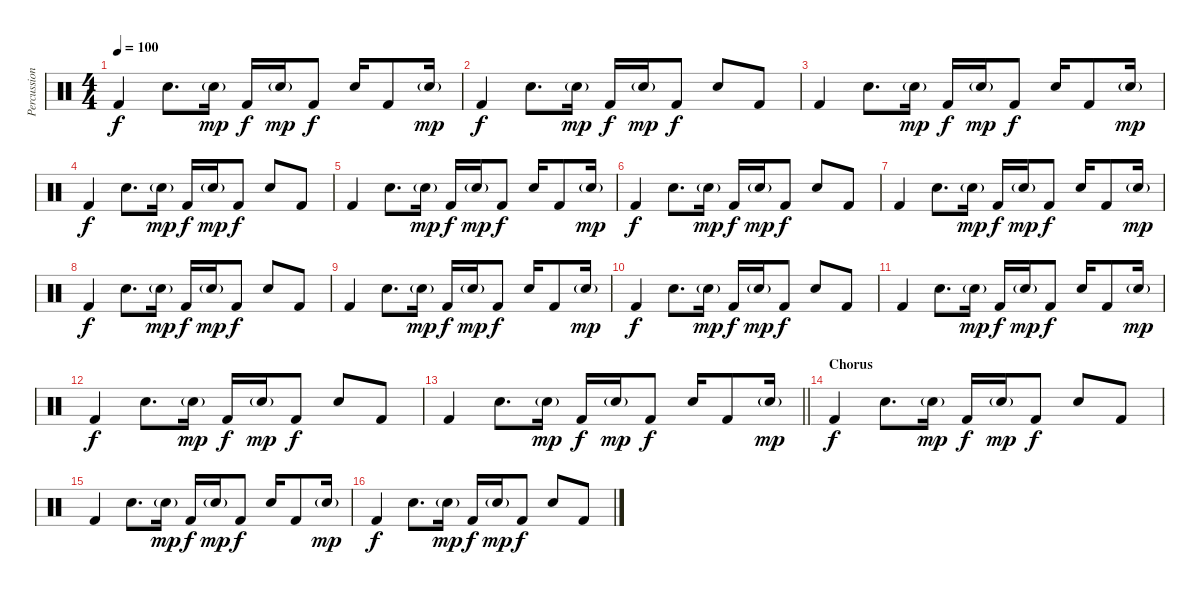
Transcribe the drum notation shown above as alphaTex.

\track ("Percussion" "Percussion") {instrument percussion}
\staff {score}
\articulation defaults
\ts (4 4)
\tempo 100
\clef neutral
\ks c "Kick (hit) 2".4{dy f} "Snare (hit) 2".8{d} "Snare (hit) 2"{g}.16{dy mp} "Kick (hit) 2".16{dy f} "Snare (hit) 2"{g}.16{dy mp} "Kick (hit) 2".8{dy f} "Snare (hit) 2".16 "Kick (hit) 2".8 "Snare (hit) 2"{g}.16{dy mp}
|
"Kick (hit) 2".4{dy f} "Snare (hit) 2".8{d} "Snare (hit) 2"{g}.16{dy mp} "Kick (hit) 2".16{dy f} "Snare (hit) 2"{g}.16{dy mp} "Kick (hit) 2".8{dy f} "Snare (hit) 2".8 "Kick (hit) 2".8 |
"Kick (hit) 2".4 "Snare (hit) 2".8{d} "Snare (hit) 2"{g}.16{dy mp} "Kick (hit) 2".16{dy f} "Snare (hit) 2"{g}.16{dy mp} "Kick (hit) 2".8{dy f} "Snare (hit) 2".16 "Kick (hit) 2".8 "Snare (hit) 2"{g}.16{dy mp} |
"Kick (hit) 2".4{dy f} "Snare (hit) 2".8{d} "Snare (hit) 2"{g}.16{dy mp} "Kick (hit) 2".16{dy f} "Snare (hit) 2"{g}.16{dy mp} "Kick (hit) 2".8{dy f} "Snare (hit) 2".8 "Kick (hit) 2".8 |
"Kick (hit) 2".4 "Snare (hit) 2".8{d} "Snare (hit) 2"{g}.16{dy mp} "Kick (hit) 2".16{dy f} "Snare (hit) 2"{g}.16{dy mp} "Kick (hit) 2".8{dy f} "Snare (hit) 2".16 "Kick (hit) 2".8 "Snare (hit) 2"{g}.16{dy mp} |
"Kick (hit) 2".4{dy f} "Snare (hit) 2".8{d} "Snare (hit) 2"{g}.16{dy mp} "Kick (hit) 2".16{dy f} "Snare (hit) 2"{g}.16{dy mp} "Kick (hit) 2".8{dy f} "Snare (hit) 2".8 "Kick (hit) 2".8 |
"Kick (hit) 2".4 "Snare (hit) 2".8{d} "Snare (hit) 2"{g}.16{dy mp} "Kick (hit) 2".16{dy f} "Snare (hit) 2"{g}.16{dy mp} "Kick (hit) 2".8{dy f} "Snare (hit) 2".16 "Kick (hit) 2".8 "Snare (hit) 2"{g}.16{dy mp} |
"Kick (hit) 2".4{dy f} "Snare (hit) 2".8{d} "Snare (hit) 2"{g}.16{dy mp} "Kick (hit) 2".16{dy f} "Snare (hit) 2"{g}.16{dy mp} "Kick (hit) 2".8{dy f} "Snare (hit) 2".8 "Kick (hit) 2".8 |
"Kick (hit) 2".4 "Snare (hit) 2".8{d} "Snare (hit) 2"{g}.16{dy mp} "Kick (hit) 2".16{dy f} "Snare (hit) 2"{g}.16{dy mp} "Kick (hit) 2".8{dy f} "Snare (hit) 2".16 "Kick (hit) 2".8 "Snare (hit) 2"{g}.16{dy mp} |
"Kick (hit) 2".4{dy f} "Snare (hit) 2".8{d} "Snare (hit) 2"{g}.16{dy mp} "Kick (hit) 2".16{dy f} "Snare (hit) 2"{g}.16{dy mp} "Kick (hit) 2".8{dy f} "Snare (hit) 2".8 "Kick (hit) 2".8 |
"Kick (hit) 2".4 "Snare (hit) 2".8{d} "Snare (hit) 2"{g}.16{dy mp} "Kick (hit) 2".16{dy f} "Snare (hit) 2"{g}.16{dy mp} "Kick (hit) 2".8{dy f} "Snare (hit) 2".16 "Kick (hit) 2".8 "Snare (hit) 2"{g}.16{dy mp} |
"Kick (hit) 2".4{dy f} "Snare (hit) 2".8{d} "Snare (hit) 2"{g}.16{dy mp} "Kick (hit) 2".16{dy f} "Snare (hit) 2"{g}.16{dy mp} "Kick (hit) 2".8{dy f} "Snare (hit) 2".8 "Kick (hit) 2".8 |
\barLineRight lightlight "Kick (hit) 2".4 "Snare (hit) 2".8{d} "Snare (hit) 2"{g}.16{dy mp} "Kick (hit) 2".16{dy f} "Snare (hit) 2"{g}.16{dy mp} "Kick (hit) 2".8{dy f} "Snare (hit) 2".16 "Kick (hit) 2".8 "Snare (hit) 2"{g}.16{dy mp}
|
\section ("" "Chorus")
"Kick (hit) 2".4{dy f} "Snare (hit) 2".8{d} "Snare (hit) 2"{g}.16{dy mp} "Kick (hit) 2".16{dy f} "Snare (hit) 2"{g}.16{dy mp} "Kick (hit) 2".8{dy f} "Snare (hit) 2".8 "Kick (hit) 2".8 |
"Kick (hit) 2".4 "Snare (hit) 2".8{d} "Snare (hit) 2"{g}.16{dy mp} "Kick (hit) 2".16{dy f} "Snare (hit) 2"{g}.16{dy mp} "Kick (hit) 2".8{dy f} "Snare (hit) 2".16 "Kick (hit) 2".8 "Snare (hit) 2"{g}.16{dy mp} |
"Kick (hit) 2".4{dy f} "Snare (hit) 2".8{d} "Snare (hit) 2"{g}.16{dy mp} "Kick (hit) 2".16{dy f} "Snare (hit) 2"{g}.16{dy mp} "Kick (hit) 2".8{dy f} "Snare (hit) 2".8 "Kick (hit) 2".8
